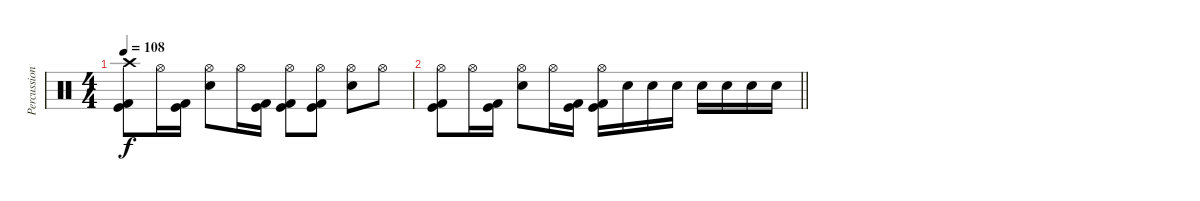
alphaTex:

\track ("Percussion" "Percussion") {instrument percussion}
\staff {score}
\articulation defaults
\ts (4 4)
\tempo 108
\clef neutral
\ks c
("Crash high (hit)" "Kick (hit)" "Kick (hit) 2").8{dy f} "Hi-Hat (open)".16 ("Kick (hit)" "Kick (hit) 2").16 ("Hi-Hat (open)" "Electric Snare (hit)").8 "Hi-Hat (open)".16 ("Kick (hit)" "Kick (hit) 2").16 ("Hi-Hat (open)" "Kick (hit)" "Kick (hit) 2").8 ("Hi-Hat (open)" "Kick (hit)" "Kick (hit) 2").8 ("Hi-Hat (open)" "Electric Snare (hit)").8 "Hi-Hat (open)".8 |
\barLineRight lightlight
("Hi-Hat (open)" "Kick (hit)" "Kick (hit) 2").8 "Hi-Hat (open)".16 ("Kick (hit)" "Kick (hit) 2").16 ("Hi-Hat (open)" "Electric Snare (hit)").8 "Hi-Hat (open)".16 ("Kick (hit)" "Kick (hit) 2").16 ("Hi-Hat (open)" "Kick (hit)" "Kick (hit) 2").16 "Electric Snare (hit)".16 "Electric Snare (hit)".16 "Electric Snare (hit)".16 "Electric Snare (hit)".16 "Electric Snare (hit)".16 "Electric Snare (hit)".16 "Electric Snare (hit)".16
